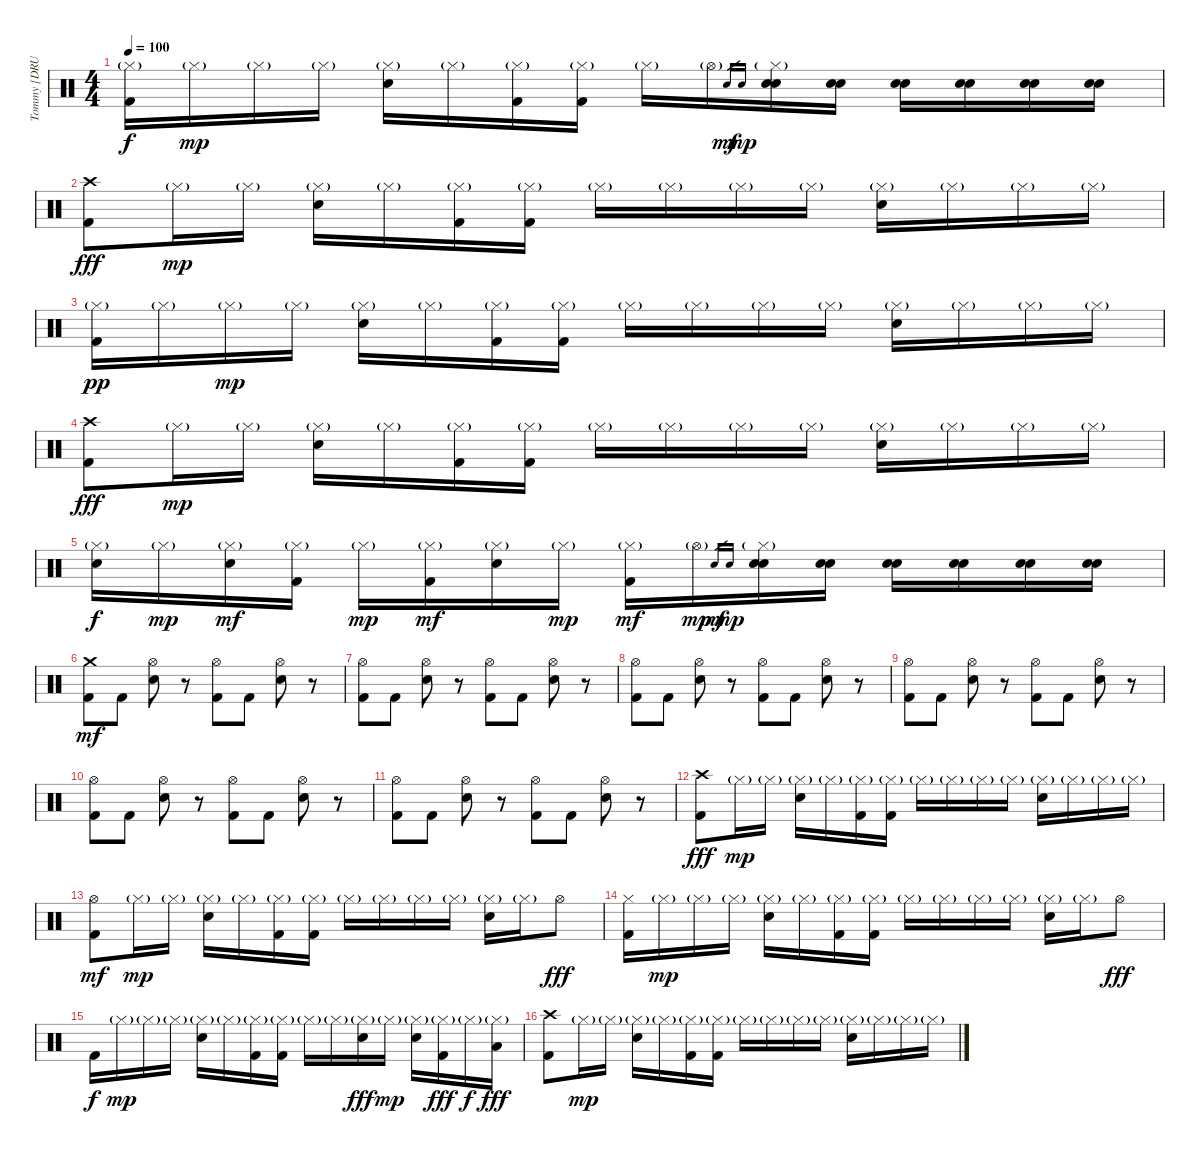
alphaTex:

\track ("Tommy [DRUMS]" "Tommy [DRU") {instrument percussion}
\staff {score}
\articulation defaults
\ts (4 4)
\tempo 100
\clef neutral
\ks c
("Hi-Hat (closed)"{g} "Kick (hit) 2").16{dy f} "Hi-Hat (closed)"{g}.16{dy mp} "Hi-Hat (closed)"{g}.16 "Hi-Hat (closed)"{g}.16 ("Hi-Hat (closed)"{g} "Snare (hit) 2").16 "Hi-Hat (closed)"{g}.16 ("Hi-Hat (closed)"{g} "Kick (hit) 2").16 ("Hi-Hat (closed)"{g} "Kick (hit) 2").16 "Hi-Hat (closed)"{g}.16 "Hi-Hat (open)"{g}.16 "Snare (hit) 2".16{gr dy mf} "Electric Snare (hit)".16{gr dy mp} ("Hi-Hat (closed)"{g} "Snare (hit) 2" "Electric Snare (hit)").16 ("Snare (hit) 2" "Electric Snare (hit)").16 ("Snare (hit) 2" "Electric Snare (hit)").16 ("Snare (hit) 2" "Electric Snare (hit)").16 ("Snare (hit) 2" "Electric Snare (hit)").16 ("Snare (hit) 2" "Electric Snare (hit)").16 |
("Crash high (hit)" "Kick (hit) 2").8{dy fff} "Hi-Hat (closed)"{g}.16{dy mp} "Hi-Hat (closed)"{g}.16 ("Hi-Hat (closed)"{g} "Snare (hit) 2").16 "Hi-Hat (closed)"{g}.16 ("Hi-Hat (closed)"{g} "Kick (hit) 2").16 ("Hi-Hat (closed)"{g} "Kick (hit) 2").16 "Hi-Hat (closed)"{g}.16 "Hi-Hat (closed)"{g}.16 "Hi-Hat (closed)"{g}.16 "Hi-Hat (closed)"{g}.16 ("Hi-Hat (closed)"{g} "Snare (hit) 2").16 "Hi-Hat (closed)"{g}.16 "Hi-Hat (closed)"{g}.16 "Hi-Hat (closed)"{g}.16 |
("Hi-Hat (closed)"{g} "Kick (hit) 2").16{dy pp} "Hi-Hat (closed)"{g}.16 "Hi-Hat (closed)"{g}.16{dy mp} "Hi-Hat (closed)"{g}.16 ("Hi-Hat (closed)"{g} "Snare (hit) 2").16 "Hi-Hat (closed)"{g}.16 ("Hi-Hat (closed)"{g} "Kick (hit) 2").16 ("Hi-Hat (closed)"{g} "Kick (hit) 2").16 "Hi-Hat (closed)"{g}.16 "Hi-Hat (closed)"{g}.16 "Hi-Hat (closed)"{g}.16 "Hi-Hat (closed)"{g}.16 ("Hi-Hat (closed)"{g} "Snare (hit) 2").16 "Hi-Hat (closed)"{g}.16 "Hi-Hat (closed)"{g}.16 "Hi-Hat (closed)"{g}.16 |
("Crash high (hit)" "Kick (hit) 2").8{dy fff} "Hi-Hat (closed)"{g}.16{dy mp} "Hi-Hat (closed)"{g}.16 ("Hi-Hat (closed)"{g} "Snare (hit) 2").16 "Hi-Hat (closed)"{g}.16 ("Hi-Hat (closed)"{g} "Kick (hit) 2").16 ("Hi-Hat (closed)"{g} "Kick (hit) 2").16 "Hi-Hat (closed)"{g}.16 "Hi-Hat (closed)"{g}.16 "Hi-Hat (closed)"{g}.16 "Hi-Hat (closed)"{g}.16 ("Hi-Hat (closed)"{g} "Snare (hit) 2").16 "Hi-Hat (closed)"{g}.16 "Hi-Hat (closed)"{g}.16 "Hi-Hat (closed)"{g}.16 |
("Hi-Hat (closed)"{g} "Snare (hit) 2").16{dy f} "Hi-Hat (closed)"{g}.16{dy mp} ("Hi-Hat (closed)"{g} "Snare (hit) 2").16{dy mf} ("Hi-Hat (closed)"{g} "Kick (hit) 2").16 "Hi-Hat (closed)"{g}.16{dy mp} ("Hi-Hat (closed)"{g} "Kick (hit) 2").16{dy mf} ("Hi-Hat (closed)"{g} "Snare (hit) 2").16 "Hi-Hat (closed)"{g}.16{dy mp} ("Hi-Hat (closed)"{g} "Kick (hit) 2").16{dy mf} "Hi-Hat (open)"{g}.16{dy mp} "Snare (hit) 2".16{gr dy mf} "Electric Snare (hit)".16{gr dy mp} ("Hi-Hat (closed)"{g} "Snare (hit) 2" "Electric Snare (hit)").16 ("Snare (hit) 2" "Electric Snare (hit)").16 ("Snare (hit) 2" "Electric Snare (hit)").16 ("Snare (hit) 2" "Electric Snare (hit)").16 ("Snare (hit) 2" "Electric Snare (hit)").16 ("Snare (hit) 2" "Electric Snare (hit)").16 |
("Crash medium (hit)" "Kick (hit) 2").8{dy mf} "Kick (hit) 2".8 ("Hi-Hat (open)" "Snare (hit) 2").8 r.8 ("Hi-Hat (open)" "Kick (hit) 2").8 "Kick (hit) 2".8 ("Hi-Hat (open)" "Snare (hit) 2").8 r.8 |
("Hi-Hat (open)" "Kick (hit) 2").8 "Kick (hit) 2".8 ("Hi-Hat (open)" "Snare (hit) 2").8 r.8 ("Hi-Hat (open)" "Kick (hit) 2").8 "Kick (hit) 2".8 ("Hi-Hat (open)" "Snare (hit) 2").8 r.8 |
("Hi-Hat (open)" "Kick (hit) 2").8 "Kick (hit) 2".8 ("Hi-Hat (open)" "Snare (hit) 2").8 r.8 ("Hi-Hat (open)" "Kick (hit) 2").8 "Kick (hit) 2".8 ("Hi-Hat (open)" "Snare (hit) 2").8 r.8 |
("Hi-Hat (open)" "Kick (hit) 2").8 "Kick (hit) 2".8 ("Hi-Hat (open)" "Snare (hit) 2").8 r.8 ("Hi-Hat (open)" "Kick (hit) 2").8 "Kick (hit) 2".8 ("Hi-Hat (open)" "Snare (hit) 2").8 r.8 |
("Hi-Hat (open)" "Kick (hit) 2").8 "Kick (hit) 2".8 ("Hi-Hat (open)" "Snare (hit) 2").8 r.8 ("Hi-Hat (open)" "Kick (hit) 2").8 "Kick (hit) 2".8 ("Hi-Hat (open)" "Snare (hit) 2").8 r.8 |
("Hi-Hat (open)" "Kick (hit) 2").8 "Kick (hit) 2".8 ("Hi-Hat (open)" "Snare (hit) 2").8 r.8 ("Hi-Hat (open)" "Kick (hit) 2").8 "Kick (hit) 2".8 ("Hi-Hat (open)" "Snare (hit) 2").8 r.8 |
("Crash high (hit)" "Kick (hit) 2").8{dy fff} "Hi-Hat (closed)"{g}.16{dy mp} "Hi-Hat (closed)"{g}.16 ("Hi-Hat (closed)"{g} "Snare (hit) 2").16 "Hi-Hat (closed)"{g}.16 ("Hi-Hat (closed)"{g} "Kick (hit) 2").16 ("Hi-Hat (closed)"{g} "Kick (hit) 2").16 "Hi-Hat (closed)"{g}.16 "Hi-Hat (closed)"{g}.16 "Hi-Hat (closed)"{g}.16 "Hi-Hat (closed)"{g}.16 ("Hi-Hat (closed)"{g} "Snare (hit) 2").16 "Hi-Hat (closed)"{g}.16 "Hi-Hat (closed)"{g}.16 "Hi-Hat (closed)"{g}.16 |
("Hi-Hat (open)" "Kick (hit) 2").8{dy mf} "Hi-Hat (closed)"{g}.16{dy mp} "Hi-Hat (closed)"{g}.16 ("Hi-Hat (closed)"{g} "Snare (hit) 2").16 "Hi-Hat (closed)"{g}.16 ("Hi-Hat (closed)"{g} "Kick (hit) 2").16 ("Hi-Hat (closed)"{g} "Kick (hit) 2").16 "Hi-Hat (closed)"{g}.16 "Hi-Hat (closed)"{g}.16 "Hi-Hat (closed)"{g}.16 "Hi-Hat (closed)"{g}.16 ("Hi-Hat (closed)"{g} "Snare (hit) 2").16 "Hi-Hat (closed)"{g}.16 "Hi-Hat (open)".8{dy fff} |
("Hi-Hat (closed)" "Kick (hit) 2").16 "Hi-Hat (closed)"{g}.16{dy mp} "Hi-Hat (closed)"{g}.16 "Hi-Hat (closed)"{g}.16 ("Hi-Hat (closed)"{g} "Snare (hit) 2").16 "Hi-Hat (closed)"{g}.16 ("Hi-Hat (closed)"{g} "Kick (hit) 2").16 ("Hi-Hat (closed)"{g} "Kick (hit) 2").16 "Hi-Hat (closed)"{g}.16 "Hi-Hat (closed)"{g}.16 "Hi-Hat (closed)"{g}.16 "Hi-Hat (closed)"{g}.16 ("Hi-Hat (closed)"{g} "Snare (hit) 2").16 "Hi-Hat (closed)"{g}.16 "Hi-Hat (open)".8{dy fff} |
"Kick (hit) 2".16{dy f} "Hi-Hat (closed)"{g}.16{dy mp} "Hi-Hat (closed)"{g}.16 "Hi-Hat (closed)"{g}.16 ("Hi-Hat (closed)"{g} "Snare (hit) 2").16 "Hi-Hat (closed)"{g}.16 ("Hi-Hat (closed)"{g} "Kick (hit) 2").16 ("Hi-Hat (closed)"{g} "Kick (hit) 2").16 "Hi-Hat (closed)"{g}.16 "Hi-Hat (closed)"{g}.16 ("Hi-Hat (closed)"{g} "Snare (hit) 2").16{dy fff} "Hi-Hat (closed)"{g}.16{dy mp} ("Hi-Hat (closed)"{g} "Snare (hit) 2").16 ("Hi-Hat (closed)"{g} "Kick (hit) 2").16{dy fff} "Hi-Hat (closed)"{g}.16{dy f} ("Hi-Hat (closed)"{g} "Low Tom (hit)").16{dy fff} |
("Crash high (hit)" "Kick (hit) 2").8 "Hi-Hat (closed)"{g}.16{dy mp} "Hi-Hat (closed)"{g}.16 ("Hi-Hat (closed)"{g} "Snare (hit) 2").16 "Hi-Hat (closed)"{g}.16 ("Hi-Hat (closed)"{g} "Kick (hit) 2").16 ("Hi-Hat (closed)"{g} "Kick (hit) 2").16 "Hi-Hat (closed)"{g}.16 "Hi-Hat (closed)"{g}.16 "Hi-Hat (closed)"{g}.16 "Hi-Hat (closed)"{g}.16 ("Hi-Hat (closed)"{g} "Snare (hit) 2").16 "Hi-Hat (closed)"{g}.16 "Hi-Hat (closed)"{g}.16 "Hi-Hat (closed)"{g}.16
